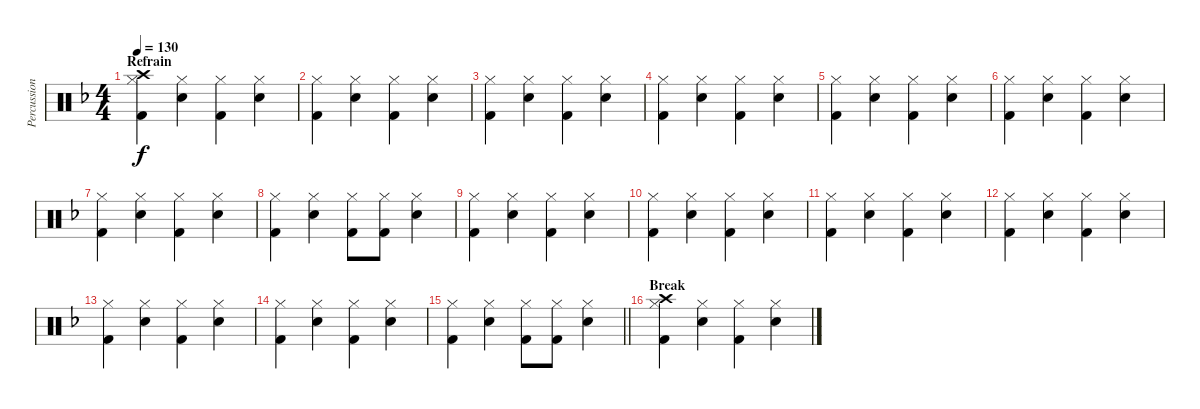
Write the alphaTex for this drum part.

\track ("Percussions" "Percussion") {instrument percussion}
\staff {score}
\articulation defaults
\ts (4 4)
\section ("" "Refrain")
\tempo 130
\clef neutral
\ks f
("Kick (hit) 2" "Hi-Hat (closed)" "Crash high (hit)").4{dy f} ("Snare (hit) 2" "Hi-Hat (closed)").4 ("Kick (hit) 2" "Hi-Hat (closed)").4 ("Snare (hit) 2" "Hi-Hat (closed)").4 |
("Kick (hit) 2" "Hi-Hat (closed)").4 ("Snare (hit) 2" "Hi-Hat (closed)").4 ("Kick (hit) 2" "Hi-Hat (closed)").4 ("Snare (hit) 2" "Hi-Hat (closed)").4 |
("Kick (hit) 2" "Hi-Hat (closed)").4 ("Snare (hit) 2" "Hi-Hat (closed)").4 ("Kick (hit) 2" "Hi-Hat (closed)").4 ("Snare (hit) 2" "Hi-Hat (closed)").4 |
("Kick (hit) 2" "Hi-Hat (closed)").4 ("Snare (hit) 2" "Hi-Hat (closed)").4 ("Kick (hit) 2" "Hi-Hat (closed)").4 ("Snare (hit) 2" "Hi-Hat (closed)").4 |
("Kick (hit) 2" "Hi-Hat (closed)").4 ("Snare (hit) 2" "Hi-Hat (closed)").4 ("Kick (hit) 2" "Hi-Hat (closed)").4 ("Snare (hit) 2" "Hi-Hat (closed)").4 |
("Kick (hit) 2" "Hi-Hat (closed)").4 ("Snare (hit) 2" "Hi-Hat (closed)").4 ("Kick (hit) 2" "Hi-Hat (closed)").4 ("Snare (hit) 2" "Hi-Hat (closed)").4 |
("Kick (hit) 2" "Hi-Hat (closed)").4 ("Snare (hit) 2" "Hi-Hat (closed)").4 ("Kick (hit) 2" "Hi-Hat (closed)").4 ("Snare (hit) 2" "Hi-Hat (closed)").4 |
("Kick (hit) 2" "Hi-Hat (closed)").4 ("Snare (hit) 2" "Hi-Hat (closed)").4 ("Kick (hit) 2" "Hi-Hat (closed)").8 ("Kick (hit) 2" "Hi-Hat (closed)").8 ("Snare (hit) 2" "Hi-Hat (closed)").4 |
("Kick (hit) 2" "Hi-Hat (closed)").4 ("Snare (hit) 2" "Hi-Hat (closed)").4 ("Kick (hit) 2" "Hi-Hat (closed)").4 ("Snare (hit) 2" "Hi-Hat (closed)").4 |
("Kick (hit) 2" "Hi-Hat (closed)").4 ("Snare (hit) 2" "Hi-Hat (closed)").4 ("Kick (hit) 2" "Hi-Hat (closed)").4 ("Snare (hit) 2" "Hi-Hat (closed)").4 |
("Kick (hit) 2" "Hi-Hat (closed)").4 ("Snare (hit) 2" "Hi-Hat (closed)").4 ("Kick (hit) 2" "Hi-Hat (closed)").4 ("Snare (hit) 2" "Hi-Hat (closed)").4 |
("Kick (hit) 2" "Hi-Hat (closed)").4 ("Snare (hit) 2" "Hi-Hat (closed)").4 ("Kick (hit) 2" "Hi-Hat (closed)").4 ("Snare (hit) 2" "Hi-Hat (closed)").4 |
("Kick (hit) 2" "Hi-Hat (closed)").4 ("Snare (hit) 2" "Hi-Hat (closed)").4 ("Kick (hit) 2" "Hi-Hat (closed)").4 ("Snare (hit) 2" "Hi-Hat (closed)").4 |
("Kick (hit) 2" "Hi-Hat (closed)").4 ("Snare (hit) 2" "Hi-Hat (closed)").4 ("Kick (hit) 2" "Hi-Hat (closed)").4 ("Snare (hit) 2" "Hi-Hat (closed)").4 |
\barLineRight lightlight
("Kick (hit) 2" "Hi-Hat (closed)").4 ("Snare (hit) 2" "Hi-Hat (closed)").4 ("Kick (hit) 2" "Hi-Hat (closed)").8 ("Kick (hit) 2" "Hi-Hat (closed)").8 ("Snare (hit) 2" "Hi-Hat (closed)").4 |
\section ("" "Break")
("Kick (hit) 2" "Hi-Hat (closed)" "Crash high (hit)").4 ("Snare (hit) 2" "Hi-Hat (closed)").4 ("Kick (hit) 2" "Hi-Hat (closed)").4 ("Snare (hit) 2" "Hi-Hat (closed)").4
